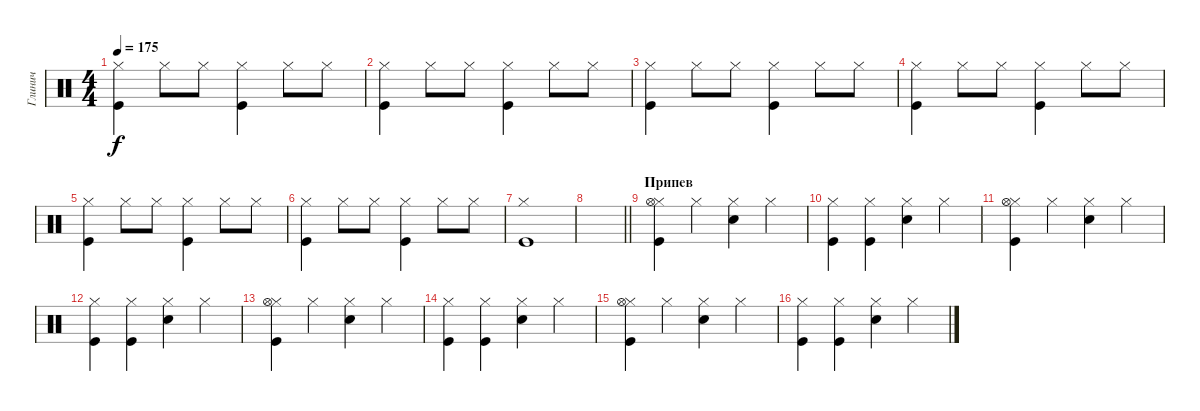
\track ("Глинич" "Глинич") {instrument percussion}
\staff {score}
\articulation defaults
\ts (4 4)
\tempo 175
\clef neutral
\ks c
("Hi-Hat (closed)" "Kick (hit)").4{dy f} "Hi-Hat (closed)".8 "Hi-Hat (closed)".8 ("Hi-Hat (closed)" "Kick (hit)").4 "Hi-Hat (closed)".8 "Hi-Hat (closed)".8 |
("Hi-Hat (closed)" "Kick (hit)").4 "Hi-Hat (closed)".8 "Hi-Hat (closed)".8 ("Hi-Hat (closed)" "Kick (hit)").4 "Hi-Hat (closed)".8 "Hi-Hat (closed)".8 |
("Hi-Hat (closed)" "Kick (hit)").4 "Hi-Hat (closed)".8 "Hi-Hat (closed)".8 ("Hi-Hat (closed)" "Kick (hit)").4 "Hi-Hat (closed)".8 "Hi-Hat (closed)".8 |
("Hi-Hat (closed)" "Kick (hit)").4 "Hi-Hat (closed)".8 "Hi-Hat (closed)".8 ("Hi-Hat (closed)" "Kick (hit)").4 "Hi-Hat (closed)".8 "Hi-Hat (closed)".8 |
("Hi-Hat (closed)" "Kick (hit)").4 "Hi-Hat (closed)".8 "Hi-Hat (closed)".8 ("Hi-Hat (closed)" "Kick (hit)").4 "Hi-Hat (closed)".8 "Hi-Hat (closed)".8 |
("Hi-Hat (closed)" "Kick (hit)").4 "Hi-Hat (closed)".8 "Hi-Hat (closed)".8 ("Hi-Hat (closed)" "Kick (hit)").4 "Hi-Hat (closed)".8 "Hi-Hat (closed)".8 |
("Hi-Hat (closed)" "Kick (hit)").1 |
\barLineRight lightlight
|
\section ("" "Припев")
("Hi-Hat (closed)" "Kick (hit)" "Hi-Hat (open)").4 "Hi-Hat (closed)".4 ("Hi-Hat (closed)" "Snare (hit) 2").4 "Hi-Hat (closed)".4 |
("Hi-Hat (closed)" "Kick (hit)").4 ("Hi-Hat (closed)" "Kick (hit)").4 ("Hi-Hat (closed)" "Snare (hit) 2").4 "Hi-Hat (closed)".4 |
("Hi-Hat (closed)" "Kick (hit)" "Hi-Hat (open)").4 "Hi-Hat (closed)".4 ("Hi-Hat (closed)" "Snare (hit) 2").4 "Hi-Hat (closed)".4 |
("Hi-Hat (closed)" "Kick (hit)").4 ("Hi-Hat (closed)" "Kick (hit)").4 ("Hi-Hat (closed)" "Snare (hit) 2").4 "Hi-Hat (closed)".4 |
("Hi-Hat (closed)" "Kick (hit)" "Hi-Hat (open)").4 "Hi-Hat (closed)".4 ("Hi-Hat (closed)" "Snare (hit) 2").4 "Hi-Hat (closed)".4 |
("Hi-Hat (closed)" "Kick (hit)").4 ("Hi-Hat (closed)" "Kick (hit)").4 ("Hi-Hat (closed)" "Snare (hit) 2").4 "Hi-Hat (closed)".4 |
("Hi-Hat (closed)" "Kick (hit)" "Hi-Hat (open)").4 "Hi-Hat (closed)".4 ("Hi-Hat (closed)" "Snare (hit) 2").4 "Hi-Hat (closed)".4 |
("Hi-Hat (closed)" "Kick (hit)").4 ("Hi-Hat (closed)" "Kick (hit)").4 ("Hi-Hat (closed)" "Snare (hit) 2").4 "Hi-Hat (closed)".4
